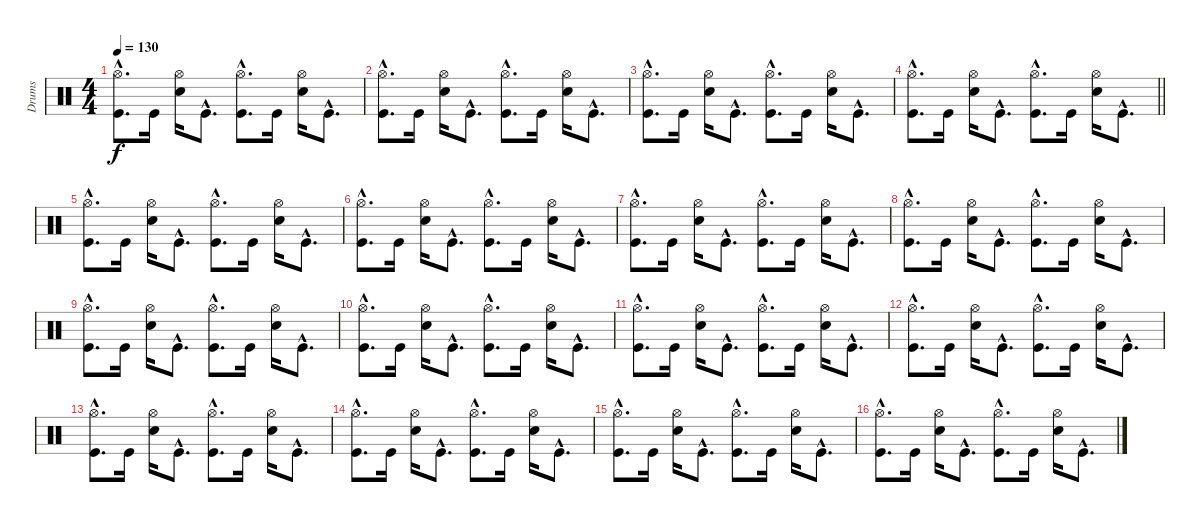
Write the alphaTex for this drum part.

\track ("Drums" "Drums") {instrument percussion}
\staff {score}
\articulation defaults
\ts (4 4)
\tempo 130
\clef neutral
\ks c
("Hi-Hat (open)"{hac} "Kick (hit)"{hac}).8{d dy f} "Kick (hit)".16 ("Hi-Hat (open)" "Snare (hit) 2").16 "Kick (hit)"{hac}.8{d} ("Hi-Hat (open)"{hac} "Kick (hit)"{hac}).8{d} "Kick (hit)".16 ("Hi-Hat (open)" "Snare (hit) 2").16 "Kick (hit)"{hac}.8{d} |
("Hi-Hat (open)"{hac} "Kick (hit)"{hac}).8{d} "Kick (hit)".16 ("Hi-Hat (open)" "Snare (hit) 2").16 "Kick (hit)"{hac}.8{d} ("Hi-Hat (open)"{hac} "Kick (hit)"{hac}).8{d} "Kick (hit)".16 ("Hi-Hat (open)" "Snare (hit) 2").16 "Kick (hit)"{hac}.8{d} |
("Hi-Hat (open)"{hac} "Kick (hit)"{hac}).8{d} "Kick (hit)".16 ("Hi-Hat (open)" "Snare (hit) 2").16 "Kick (hit)"{hac}.8{d} ("Hi-Hat (open)"{hac} "Kick (hit)"{hac}).8{d} "Kick (hit)".16 ("Hi-Hat (open)" "Snare (hit) 2").16 "Kick (hit)"{hac}.8{d} |
\barLineRight lightlight
("Hi-Hat (open)"{hac} "Kick (hit)"{hac}).8{d} "Kick (hit)".16 ("Hi-Hat (open)" "Snare (hit) 2").16 "Kick (hit)"{hac}.8{d} ("Hi-Hat (open)"{hac} "Kick (hit)"{hac}).8{d} "Kick (hit)".16 ("Hi-Hat (open)" "Snare (hit) 2").16 "Kick (hit)"{hac}.8{d} |
("Hi-Hat (open)"{hac} "Kick (hit)"{hac}).8{d} "Kick (hit)".16 ("Hi-Hat (open)" "Snare (hit) 2").16 "Kick (hit)"{hac}.8{d} ("Hi-Hat (open)"{hac} "Kick (hit)"{hac}).8{d} "Kick (hit)".16 ("Hi-Hat (open)" "Snare (hit) 2").16 "Kick (hit)"{hac}.8{d} |
("Hi-Hat (open)"{hac} "Kick (hit)"{hac}).8{d} "Kick (hit)".16 ("Hi-Hat (open)" "Snare (hit) 2").16 "Kick (hit)"{hac}.8{d} ("Hi-Hat (open)"{hac} "Kick (hit)"{hac}).8{d} "Kick (hit)".16 ("Hi-Hat (open)" "Snare (hit) 2").16 "Kick (hit)"{hac}.8{d} |
("Hi-Hat (open)"{hac} "Kick (hit)"{hac}).8{d} "Kick (hit)".16 ("Hi-Hat (open)" "Snare (hit) 2").16 "Kick (hit)"{hac}.8{d} ("Hi-Hat (open)"{hac} "Kick (hit)"{hac}).8{d} "Kick (hit)".16 ("Hi-Hat (open)" "Snare (hit) 2").16 "Kick (hit)"{hac}.8{d} |
("Hi-Hat (open)"{hac} "Kick (hit)"{hac}).8{d} "Kick (hit)".16 ("Hi-Hat (open)" "Snare (hit) 2").16 "Kick (hit)"{hac}.8{d} ("Hi-Hat (open)"{hac} "Kick (hit)"{hac}).8{d} "Kick (hit)".16 ("Hi-Hat (open)" "Snare (hit) 2").16 "Kick (hit)"{hac}.8{d} |
("Hi-Hat (open)"{hac} "Kick (hit)"{hac}).8{d} "Kick (hit)".16 ("Hi-Hat (open)" "Snare (hit) 2").16 "Kick (hit)"{hac}.8{d} ("Hi-Hat (open)"{hac} "Kick (hit)"{hac}).8{d} "Kick (hit)".16 ("Hi-Hat (open)" "Snare (hit) 2").16 "Kick (hit)"{hac}.8{d} |
("Hi-Hat (open)"{hac} "Kick (hit)"{hac}).8{d} "Kick (hit)".16 ("Hi-Hat (open)" "Snare (hit) 2").16 "Kick (hit)"{hac}.8{d} ("Hi-Hat (open)"{hac} "Kick (hit)"{hac}).8{d} "Kick (hit)".16 ("Hi-Hat (open)" "Snare (hit) 2").16 "Kick (hit)"{hac}.8{d} |
("Hi-Hat (open)"{hac} "Kick (hit)"{hac}).8{d} "Kick (hit)".16 ("Hi-Hat (open)" "Snare (hit) 2").16 "Kick (hit)"{hac}.8{d} ("Hi-Hat (open)"{hac} "Kick (hit)"{hac}).8{d} "Kick (hit)".16 ("Hi-Hat (open)" "Snare (hit) 2").16 "Kick (hit)"{hac}.8{d} |
("Hi-Hat (open)"{hac} "Kick (hit)"{hac}).8{d} "Kick (hit)".16 ("Hi-Hat (open)" "Snare (hit) 2").16 "Kick (hit)"{hac}.8{d} ("Hi-Hat (open)"{hac} "Kick (hit)"{hac}).8{d} "Kick (hit)".16 ("Hi-Hat (open)" "Snare (hit) 2").16 "Kick (hit)"{hac}.8{d} |
("Hi-Hat (open)"{hac} "Kick (hit)"{hac}).8{d} "Kick (hit)".16 ("Hi-Hat (open)" "Snare (hit) 2").16 "Kick (hit)"{hac}.8{d} ("Hi-Hat (open)"{hac} "Kick (hit)"{hac}).8{d} "Kick (hit)".16 ("Hi-Hat (open)" "Snare (hit) 2").16 "Kick (hit)"{hac}.8{d} |
("Hi-Hat (open)"{hac} "Kick (hit)"{hac}).8{d} "Kick (hit)".16 ("Hi-Hat (open)" "Snare (hit) 2").16 "Kick (hit)"{hac}.8{d} ("Hi-Hat (open)"{hac} "Kick (hit)"{hac}).8{d} "Kick (hit)".16 ("Hi-Hat (open)" "Snare (hit) 2").16 "Kick (hit)"{hac}.8{d} |
("Hi-Hat (open)"{hac} "Kick (hit)"{hac}).8{d} "Kick (hit)".16 ("Hi-Hat (open)" "Snare (hit) 2").16 "Kick (hit)"{hac}.8{d} ("Hi-Hat (open)"{hac} "Kick (hit)"{hac}).8{d} "Kick (hit)".16 ("Hi-Hat (open)" "Snare (hit) 2").16 "Kick (hit)"{hac}.8{d} |
("Hi-Hat (open)"{hac} "Kick (hit)"{hac}).8{d} "Kick (hit)".16 ("Hi-Hat (open)" "Snare (hit) 2").16 "Kick (hit)"{hac}.8{d} ("Hi-Hat (open)"{hac} "Kick (hit)"{hac}).8{d} "Kick (hit)".16 ("Hi-Hat (open)" "Snare (hit) 2").16 "Kick (hit)"{hac}.8{d}
